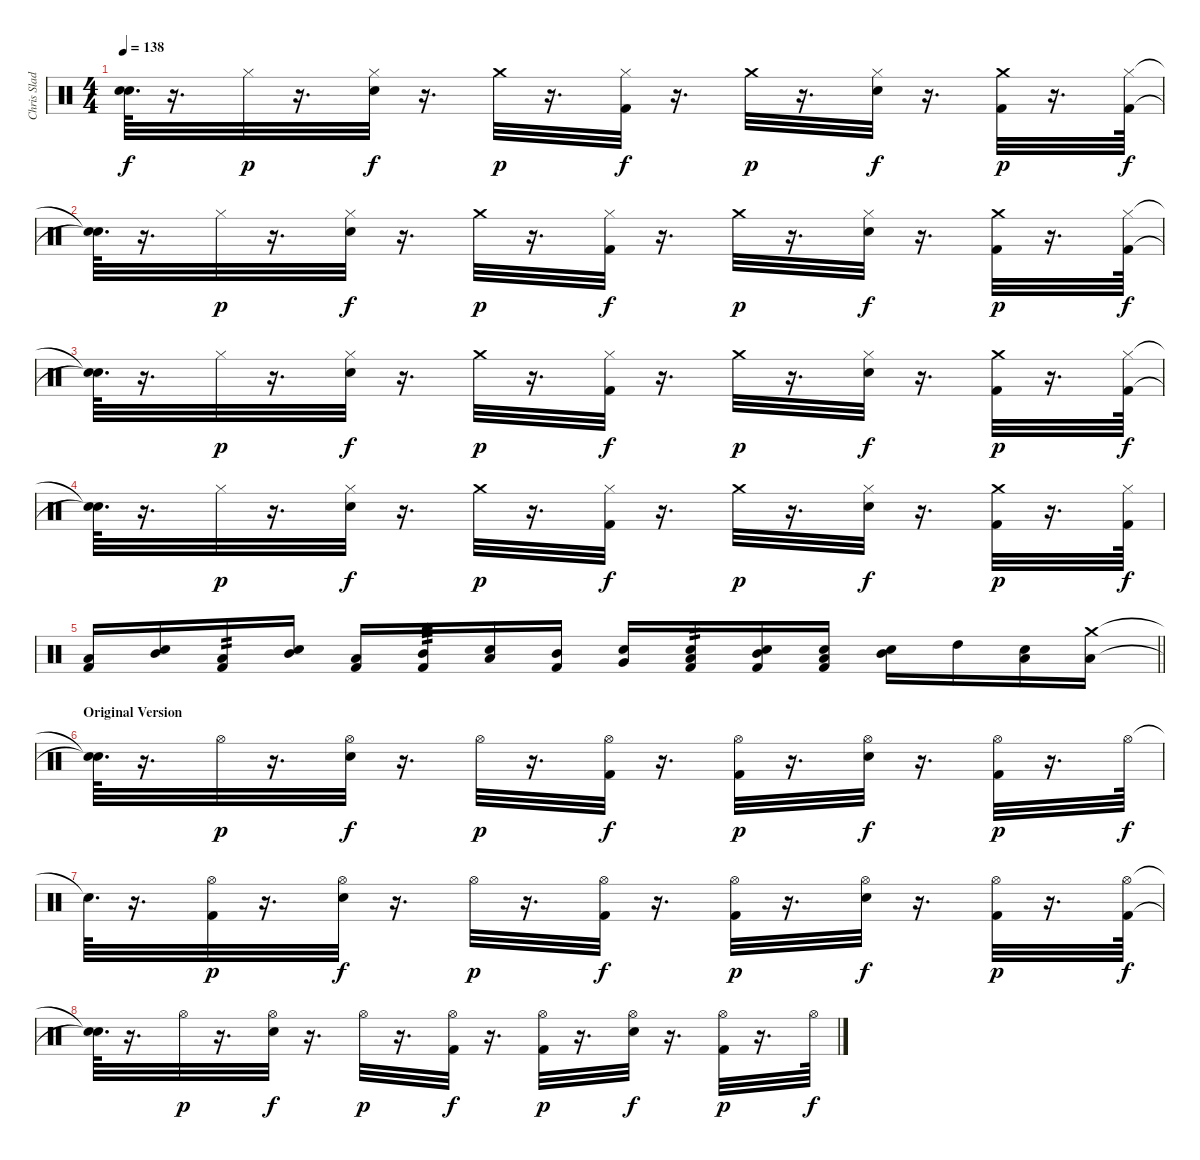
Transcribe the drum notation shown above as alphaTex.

\track ("Chris Slade" "Chris Slad") {instrument percussion}
\staff {score}
\articulation defaults
\ts (4 4)
\tempo 138
\clef neutral
\ks c
("Snare (hit)"{t} "Snare (hit)"{t}).64{d dy f} r.16{d} "Hi-Hat (closed)".32{dy p} r.16{d} ("Hi-Hat (closed)" "Electric Snare (hit)").32{dy f} r.16{d} "Crash medium (hit)".32{dy p} r.16{d} ("Hi-Hat (closed)" "Kick (hit) 2").32{dy f} r.16{d} "Crash medium (hit)".32{dy p} r.16{d} ("Hi-Hat (closed)" "Electric Snare (hit)").32{dy f} r.16{d} ("Crash medium (hit)" "Kick (hit) 2").32{dy p} r.16{d} ("Hi-Hat (closed)" "Kick (hit) 2").64{dy f} |
("Snare (hit)"{t} "Snare (hit)"{t}).64{d} r.16{d} "Hi-Hat (closed)".32{dy p} r.16{d} ("Hi-Hat (closed)" "Electric Snare (hit)").32{dy f} r.16{d} "Crash medium (hit)".32{dy p} r.16{d} ("Hi-Hat (closed)" "Kick (hit) 2").32{dy f} r.16{d} "Crash medium (hit)".32{dy p} r.16{d} ("Hi-Hat (closed)" "Electric Snare (hit)").32{dy f} r.16{d} ("Crash medium (hit)" "Kick (hit) 2").32{dy p} r.16{d} ("Hi-Hat (closed)" "Kick (hit) 2").64{dy f} |
("Snare (hit)"{t} "Snare (hit)"{t}).64{d} r.16{d} "Hi-Hat (closed)".32{dy p} r.16{d} ("Hi-Hat (closed)" "Electric Snare (hit)").32{dy f} r.16{d} "Crash medium (hit)".32{dy p} r.16{d} ("Hi-Hat (closed)" "Kick (hit) 2").32{dy f} r.16{d} "Crash medium (hit)".32{dy p} r.16{d} ("Hi-Hat (closed)" "Electric Snare (hit)").32{dy f} r.16{d} ("Crash medium (hit)" "Kick (hit) 2").32{dy p} r.16{d} ("Hi-Hat (closed)" "Kick (hit) 2").64{dy f} |
("Snare (hit)"{t} "Snare (hit)"{t}).64{d} r.16{d} "Hi-Hat (closed)".32{dy p} r.16{d} ("Hi-Hat (closed)" "Electric Snare (hit)").32{dy f} r.16{d} "Crash medium (hit)".32{dy p} r.16{d} ("Hi-Hat (closed)" "Kick (hit) 2").32{dy f} r.16{d} "Crash medium (hit)".32{dy p} r.16{d} ("Hi-Hat (closed)" "Electric Snare (hit)").32{dy f} r.16{d} ("Crash medium (hit)" "Kick (hit) 2").32{dy p} r.16{d} ("Hi-Hat (closed)" "Kick (hit) 2").64{dy f} |
\barLineRight lightlight
("Kick (hit) 2" "Low Tom (hit)").16 ("Mid Tom (hit)" "Electric Snare (hit)").16 ("Kick (hit) 2" "Low Tom (hit)").16{tp 2} ("Mid Tom (hit)" "Electric Snare (hit)").16 ("Kick (hit) 2" "Low Tom (hit)").16 ("Kick (hit) 2" "Mid Tom (hit)").16{tp 3} ("Low Tom (hit)" "Electric Snare (hit)").16 ("Kick (hit) 2" "Mid Tom (hit)").16 ("Very Low Tom (hit)" "Electric Snare (hit)").16 ("Kick (hit) 2" "Low Floor Tom (hit)" "Electric Snare (hit)").16{tp 2} ("Kick (hit) 2" "Mid Tom (hit)" "Electric Snare (hit)").16 ("Kick (hit) 2" "Low Floor Tom (hit)" "Electric Snare (hit)").16 ("Mid Tom (hit)" "Electric Snare (hit)").16 "High Tom (hit)".16 ("Low Floor Tom (hit)" "Electric Snare (hit)").16 ("Crash medium (hit)" "Low Tom (hit)").16 |
\section ("" "Original Version")
("Snare (hit)"{t} "Snare (hit)"{t}).64{d} r.16{d} "Hi-Hat (open)".32{dy p} r.16{d} ("Hi-Hat (open)" "Electric Snare (hit)").32{dy f} r.16{d} "Hi-Hat (open)".32{dy p} r.16{d} ("Hi-Hat (open)" "Kick (hit) 2").32{dy f} r.16{d} ("Kick (hit) 2" "Hi-Hat (open)").32{dy p} r.16{d} ("Hi-Hat (open)" "Electric Snare (hit)").32{dy f} r.16{d} ("Kick (hit) 2" "Hi-Hat (open)").32{dy p} r.16{d} "Hi-Hat (open)".64{dy f} |
"Snare (hit)"{t}.64{d} r.16{d} ("Kick (hit) 2" "Hi-Hat (open)").32{dy p} r.16{d} ("Hi-Hat (open)" "Electric Snare (hit)").32{dy f} r.16{d} "Hi-Hat (open)".32{dy p} r.16{d} ("Hi-Hat (open)" "Kick (hit) 2").32{dy f} r.16{d} ("Kick (hit) 2" "Hi-Hat (open)").32{dy p} r.16{d} ("Hi-Hat (open)" "Electric Snare (hit)").32{dy f} r.16{d} ("Kick (hit) 2" "Hi-Hat (open)").32{dy p} r.16{d} ("Hi-Hat (open)" "Kick (hit) 2").64{dy f} |
("Snare (hit)"{t} "Snare (hit)"{t}).64{d} r.16{d} "Hi-Hat (open)".32{dy p} r.16{d} ("Hi-Hat (open)" "Electric Snare (hit)").32{dy f} r.16{d} "Hi-Hat (open)".32{dy p} r.16{d} ("Hi-Hat (open)" "Kick (hit) 2").32{dy f} r.16{d} ("Kick (hit) 2" "Hi-Hat (open)").32{dy p} r.16{d} ("Hi-Hat (open)" "Electric Snare (hit)").32{dy f} r.16{d} ("Kick (hit) 2" "Hi-Hat (open)").32{dy p} r.16{d} "Hi-Hat (open)".64{dy f}
